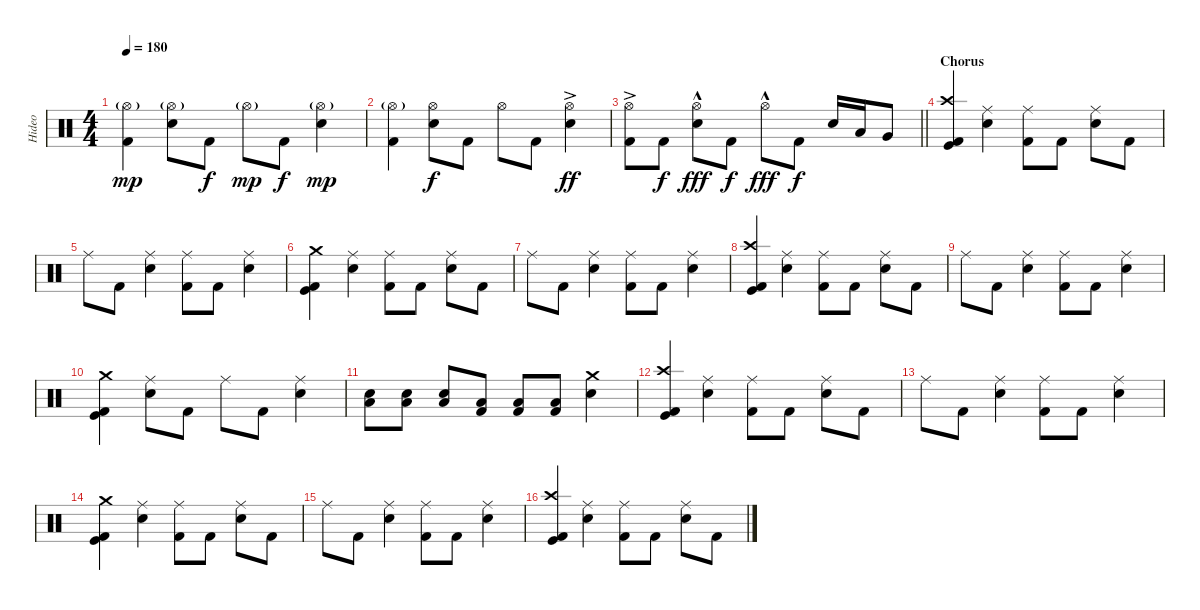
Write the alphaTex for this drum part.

\track ("Hideo" "Hideo") {instrument percussion}
\staff {score}
\articulation defaults
\ts (4 4)
\tempo 180
\clef neutral
\ks c
("Hi-Hat (open)"{g} "Kick (hit) 2").4{dy mp} ("Hi-Hat (open)"{g} "Electric Snare (hit)").8 "Kick (hit) 2".8{dy f} "Hi-Hat (open)"{g}.8{dy mp} "Kick (hit) 2".8{dy f} ("Hi-Hat (open)"{g} "Electric Snare (hit)").4{dy mp} |
("Hi-Hat (open)"{g} "Kick (hit) 2").4 ("Hi-Hat (open)" "Electric Snare (hit)").8{dy f} "Kick (hit) 2".8 "Hi-Hat (open)".8 "Kick (hit) 2".8 ("Hi-Hat (open)"{ac} "Electric Snare (hit)").4{dy ff} |
\barLineRight lightlight
("Hi-Hat (open)"{ac} "Kick (hit) 2").8 "Kick (hit) 2".8{dy f} ("Hi-Hat (open)"{hac} "Electric Snare (hit)").8{dy fff} "Kick (hit) 2".8{dy f} "Hi-Hat (open)"{hac}.8{dy fff} "Kick (hit) 2".8{dy f} "Electric Snare (hit)".16 "Low Tom (hit)".16 "Very Low Tom (hit)".8 |
\section ("" "Chorus")
("Crash high (hit)" "Kick (hit) 2" "Kick (hit)").4 ("Ride (middle)" "Electric Snare (hit)").4 ("Ride (middle)" "Kick (hit) 2").8 "Kick (hit) 2".8 ("Ride (middle)" "Electric Snare (hit)").8 "Kick (hit) 2".8 |
"Ride (middle)".8 "Kick (hit) 2".8 ("Ride (middle)" "Electric Snare (hit)").4 ("Ride (middle)" "Kick (hit) 2").8 "Kick (hit) 2".8 ("Ride (middle)" "Electric Snare (hit)").4 |
("Crash medium (hit)" "Kick (hit) 2" "Kick (hit)").4 ("Ride (middle)" "Electric Snare (hit)").4 ("Ride (middle)" "Kick (hit) 2").8 "Kick (hit) 2".8 ("Ride (middle)" "Electric Snare (hit)").8 "Kick (hit) 2".8 |
"Ride (middle)".8 "Kick (hit) 2".8 ("Ride (middle)" "Electric Snare (hit)").4 ("Ride (middle)" "Kick (hit) 2").8 "Kick (hit) 2".8 ("Ride (middle)" "Electric Snare (hit)").4 |
("Crash high (hit)" "Kick (hit) 2" "Kick (hit)").4 ("Ride (middle)" "Electric Snare (hit)").4 ("Ride (middle)" "Kick (hit) 2").8 "Kick (hit) 2".8 ("Ride (middle)" "Electric Snare (hit)").8 "Kick (hit) 2".8 |
"Ride (middle)".8 "Kick (hit) 2".8 ("Ride (middle)" "Electric Snare (hit)").4 ("Ride (middle)" "Kick (hit) 2").8 "Kick (hit) 2".8 ("Ride (middle)" "Electric Snare (hit)").4 |
("Crash medium (hit)" "Kick (hit) 2" "Kick (hit)").4 ("Ride (middle)" "Electric Snare (hit)").8 "Kick (hit) 2".8 "Ride (middle)".8 "Kick (hit) 2".8 ("Ride (middle)" "Electric Snare (hit)").4 |
("Low Floor Tom (hit)" "Electric Snare (hit)").8 ("Low Floor Tom (hit)" "Electric Snare (hit)").8 ("Low Floor Tom (hit)" "Electric Snare (hit)").8 ("Low Tom (hit)" "Kick (hit) 2").8 ("Low Tom (hit)" "Kick (hit) 2").8 ("Low Tom (hit)" "Kick (hit) 2").8 ("Crash medium (hit)" "Electric Snare (hit)").4 |
("Crash high (hit)" "Kick (hit) 2" "Kick (hit)").4 ("Ride (middle)" "Electric Snare (hit)").4 ("Ride (middle)" "Kick (hit) 2").8 "Kick (hit) 2".8 ("Ride (middle)" "Electric Snare (hit)").8 "Kick (hit) 2".8 |
"Ride (middle)".8 "Kick (hit) 2".8 ("Ride (middle)" "Electric Snare (hit)").4 ("Ride (middle)" "Kick (hit) 2").8 "Kick (hit) 2".8 ("Ride (middle)" "Electric Snare (hit)").4 |
("Crash medium (hit)" "Kick (hit) 2" "Kick (hit)").4 ("Ride (middle)" "Electric Snare (hit)").4 ("Ride (middle)" "Kick (hit) 2").8 "Kick (hit) 2".8 ("Ride (middle)" "Electric Snare (hit)").8 "Kick (hit) 2".8 |
"Ride (middle)".8 "Kick (hit) 2".8 ("Ride (middle)" "Electric Snare (hit)").4 ("Ride (middle)" "Kick (hit) 2").8 "Kick (hit) 2".8 ("Ride (middle)" "Electric Snare (hit)").4 |
("Crash high (hit)" "Kick (hit) 2" "Kick (hit)").4 ("Ride (middle)" "Electric Snare (hit)").4 ("Ride (middle)" "Kick (hit) 2").8 "Kick (hit) 2".8 ("Ride (middle)" "Electric Snare (hit)").8 "Kick (hit) 2".8
